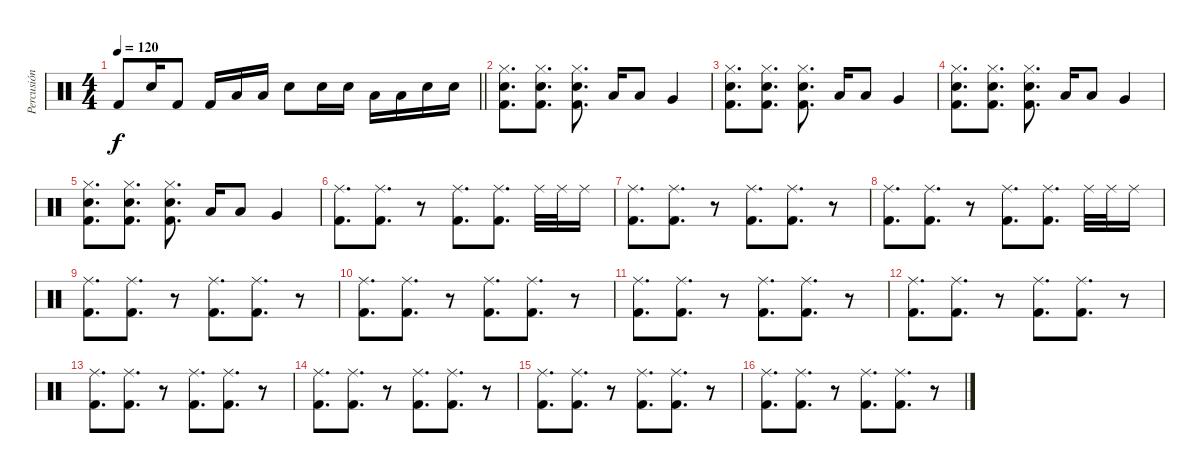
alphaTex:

\track ("Percusión" "Percusión") {instrument percussion}
\staff {score}
\articulation defaults
\ts (4 4)
\tempo 120
\clef neutral
\barLineRight lightlight
\ks c "Kick (hit) 2".8{dy f} "Electric Snare (hit)".16 "Kick (hit) 2".8 "Kick (hit) 2".16 "Low Tom (hit)".16 "Low Tom (hit)".16 "Electric Snare (hit)".8 "Electric Snare (hit)".16 "Electric Snare (hit)".16 "Low Tom (hit)".16 "Low Tom (hit)".16 "Electric Snare (hit)".16 "Electric Snare (hit)".16
|
("Kick (hit) 2" "Electric Snare (hit)" "Hi-Hat (closed)").8{d} ("Kick (hit) 2" "Electric Snare (hit)" "Hi-Hat (closed)").8{d} ("Kick (hit) 2" "Electric Snare (hit)" "Hi-Hat (closed)").8{d} "Low Tom (hit)".16 "Low Tom (hit)".8 "Very Low Tom (hit)".4 |
("Kick (hit) 2" "Electric Snare (hit)" "Hi-Hat (closed)").8{d} ("Kick (hit) 2" "Electric Snare (hit)" "Hi-Hat (closed)").8{d} ("Kick (hit) 2" "Electric Snare (hit)" "Hi-Hat (closed)").8{d} "Low Tom (hit)".16 "Low Tom (hit)".8 "Very Low Tom (hit)".4 |
("Kick (hit) 2" "Electric Snare (hit)" "Hi-Hat (closed)").8{d} ("Kick (hit) 2" "Electric Snare (hit)" "Hi-Hat (closed)").8{d} ("Kick (hit) 2" "Electric Snare (hit)" "Hi-Hat (closed)").8{d} "Low Tom (hit)".16 "Low Tom (hit)".8 "Very Low Tom (hit)".4 |
("Kick (hit) 2" "Electric Snare (hit)" "Hi-Hat (closed)").8{d} ("Kick (hit) 2" "Electric Snare (hit)" "Hi-Hat (closed)").8{d} ("Kick (hit) 2" "Electric Snare (hit)" "Hi-Hat (closed)").8{d} "Low Tom (hit)".16 "Low Tom (hit)".8 "Very Low Tom (hit)".4 |
("Kick (hit) 2" "Ride (middle)").8{d} ("Kick (hit) 2" "Ride (middle)").8{d} r.8 ("Kick (hit) 2" "Ride (middle)").8{d} ("Kick (hit) 2" "Ride (middle)").8{d} "Ride (middle)".32 "Ride (middle)".32 "Ride (middle)".16 |
("Kick (hit) 2" "Ride (middle)").8{d} ("Kick (hit) 2" "Ride (middle)").8{d} r.8 ("Kick (hit) 2" "Ride (middle)").8{d} ("Kick (hit) 2" "Ride (middle)").8{d} r.8 |
("Kick (hit) 2" "Ride (middle)").8{d} ("Kick (hit) 2" "Ride (middle)").8{d} r.8 ("Kick (hit) 2" "Ride (middle)").8{d} ("Kick (hit) 2" "Ride (middle)").8{d} "Ride (middle)".32 "Ride (middle)".32 "Ride (middle)".16 |
("Kick (hit) 2" "Ride (middle)").8{d} ("Kick (hit) 2" "Ride (middle)").8{d} r.8 ("Kick (hit) 2" "Ride (middle)").8{d} ("Kick (hit) 2" "Ride (middle)").8{d} r.8 |
("Kick (hit) 2" "Ride (middle)").8{d} ("Kick (hit) 2" "Ride (middle)").8{d} r.8 ("Kick (hit) 2" "Ride (middle)").8{d} ("Kick (hit) 2" "Ride (middle)").8{d} r.8 |
("Kick (hit) 2" "Ride (middle)").8{d} ("Kick (hit) 2" "Ride (middle)").8{d} r.8 ("Kick (hit) 2" "Ride (middle)").8{d} ("Kick (hit) 2" "Ride (middle)").8{d} r.8 |
("Kick (hit) 2" "Ride (middle)").8{d} ("Kick (hit) 2" "Ride (middle)").8{d} r.8 ("Kick (hit) 2" "Ride (middle)").8{d} ("Kick (hit) 2" "Ride (middle)").8{d} r.8 |
("Kick (hit) 2" "Ride (middle)").8{d} ("Kick (hit) 2" "Ride (middle)").8{d} r.8 ("Kick (hit) 2" "Ride (middle)").8{d} ("Kick (hit) 2" "Ride (middle)").8{d} r.8 |
("Kick (hit) 2" "Ride (middle)").8{d} ("Kick (hit) 2" "Ride (middle)").8{d} r.8 ("Kick (hit) 2" "Ride (middle)").8{d} ("Kick (hit) 2" "Ride (middle)").8{d} r.8 |
("Kick (hit) 2" "Ride (middle)").8{d} ("Kick (hit) 2" "Ride (middle)").8{d} r.8 ("Kick (hit) 2" "Ride (middle)").8{d} ("Kick (hit) 2" "Ride (middle)").8{d} r.8 |
("Kick (hit) 2" "Ride (middle)").8{d} ("Kick (hit) 2" "Ride (middle)").8{d} r.8 ("Kick (hit) 2" "Ride (middle)").8{d} ("Kick (hit) 2" "Ride (middle)").8{d} r.8
